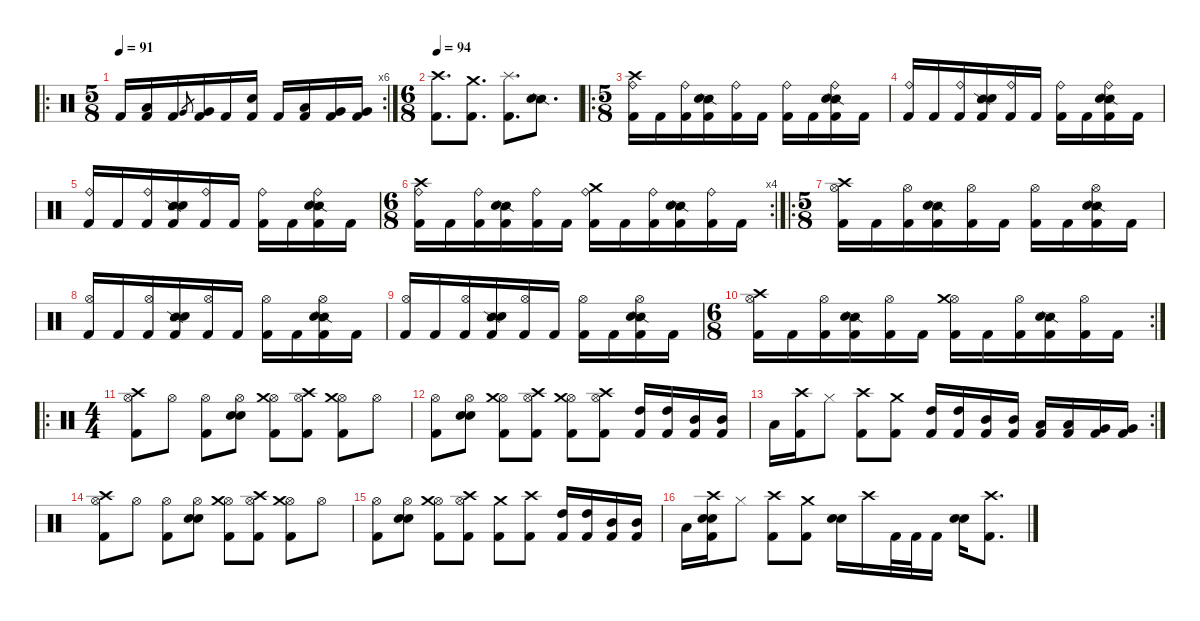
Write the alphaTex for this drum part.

\defaultSystemsLayout 4
\hideDynamics
\bracketExtendMode nobrackets
\singleTrackTrackNamePolicy hidden
\multiTrackTrackNamePolicy hidden
\firstSystemTrackNameMode fullname
\firstSystemTrackNameOrientation horizontal
\otherSystemsTrackNameOrientation horizontal
\track ("Drums" "drm.") {defaultSystemsLayout 4 instrument percussion}
\staff {score}
\articulation defaults
\ro
\rc 6
\ts (5 8)
\tempo 91
\clef neutral
\ks c "Kick (hit) 2".16{dy f beam Up}
("Low Tom (hit)" "Kick (hit) 2").16{dy ff beam Up} "Kick (hit) 2".16{dy f beam Up} "Very Low Tom (hit)".8{gr dy p beam Up} ("Very Low Tom (hit)" "Kick (hit) 2").16{dy f beam Up} "Kick (hit) 2".16{beam Up} ("Snare (hit) 2" "Kick (hit) 2").16{dy fff beam Up} "Kick (hit) 2".16{dy f beam Up} ("Low Tom (hit)" "Kick (hit) 2").16{dy ff beam Up} ("Very Low Tom (hit)" "Kick (hit) 2").16{dy f beam Up} ("Kick (hit) 2" "Very Low Tom (hit)").16{dy mf beam Up} |
\ts (6 8)
\beaming (8 3 3)
\tempo 94
("Crash high (hit)" "Kick (hit) 2").8{d dy fff beam Down} ("Crash medium (hit)" "Kick (hit) 2").8{d beam Down} ("Splash (hit)" "Kick (hit) 2").8{d beam Down} ("Snare (side stick) 2" "Snare (hit) 2").8{d dy ff beam Down} |
\ro
\ts (5 8)
\beaming (8 3 2)
("Ride (bell)" "Crash high (hit)" "Kick (hit) 2").16{dy f beam Down} "Kick (hit) 2".16{dy ff beam Down} ("Ride (bell)" "Kick (hit) 2").16{dy f beam Down} ("Snare (side stick) 2" "Snare (hit) 2" "Kick (hit) 2").16{dy ff beam Down} ("Ride (bell)" "Kick (hit) 2").16{dy f beam Down} "Kick (hit) 2".16{dy ff beam Down} ("Ride (bell)" "Kick (hit) 2").16{dy f beam Down} "Kick (hit) 2".16{dy ff beam Down} ("Ride (bell)" "Snare (side stick) 2" "Snare (hit) 2" "Kick (hit) 2").16{dy f beam Down} "Kick (hit) 2".16{dy ff beam Down} |
("Ride (bell)" "Kick (hit) 2").16{dy f beam Up} "Kick (hit) 2".16{beam Up} ("Ride (bell)" "Kick (hit) 2").16{beam Up} ("Snare (side stick) 2" "Snare (hit) 2" "Kick (hit) 2").16{beam Up} ("Ride (bell)" "Kick (hit) 2").16{beam Up} "Kick (hit) 2".16{beam Up} ("Ride (bell)" "Kick (hit) 2").16{beam Down} "Kick (hit) 2".16{beam Down} ("Ride (bell)" "Snare (side stick) 2" "Snare (hit) 2" "Kick (hit) 2").16{beam Down} "Kick (hit) 2".16{beam Down} |
("Ride (bell)" "Kick (hit) 2").16{beam Up} "Kick (hit) 2".16{dy ff beam Up} ("Ride (bell)" "Kick (hit) 2").16{dy f beam Up} ("Snare (side stick) 2" "Snare (hit) 2" "Kick (hit) 2").16{dy ff beam Up} ("Ride (bell)" "Kick (hit) 2").16{dy f beam Up} "Kick (hit) 2".16{dy ff beam Up} ("Ride (bell)" "Kick (hit) 2").16{dy f beam Down} "Kick (hit) 2".16{dy ff beam Down} ("Ride (bell)" "Snare (side stick) 2" "Snare (hit) 2" "Kick (hit) 2").16{dy f beam Down} "Kick (hit) 2".16{dy ff beam Down} |
\rc 4
\ts (6 8)
\beaming (8 3 3)
("Ride (bell)" "Crash high (hit)" "Kick (hit) 2").16{dy f beam Down} "Kick (hit) 2".16{beam Down} ("Ride (bell)" "Kick (hit) 2").16{beam Down} ("Snare (side stick) 2" "Snare (hit) 2" "Kick (hit) 2").16{beam Down} ("Ride (bell)" "Kick (hit) 2").16{beam Down} "Kick (hit) 2".16{beam Down} ("Ride (bell)" "Crash medium (hit)" "Kick (hit) 2").16{beam Down} "Kick (hit) 2".16{beam Down} ("Ride (bell)" "Kick (hit) 2").16{beam Down} ("Snare (side stick) 2" "Snare (hit) 2" "Kick (hit) 2").16{beam Down} ("Ride (bell)" "Kick (hit) 2").16{beam Down} "Kick (hit) 2".16{beam Down} |
\ro
\ts (5 8)
\beaming (8 3 2)
("Hi-Hat (open)" "Crash high (hit)" "Kick (hit) 2").16{dy ff beam Down} "Kick (hit) 2".16{dy f beam Down} ("Hi-Hat (open)" "Kick (hit) 2").16{dy ff beam Down} ("Snare (side stick) 2" "Snare (hit) 2" "Kick (hit) 2").16{dy f beam Down} ("Hi-Hat (open)" "Kick (hit) 2").16{dy ff beam Down} "Kick (hit) 2".16{dy f beam Down} ("Hi-Hat (open)" "Kick (hit) 2").16{dy ff beam Down} "Kick (hit) 2".16{dy f beam Down} ("Hi-Hat (open)" "Snare (side stick) 2" "Snare (hit) 2" "Kick (hit) 2").16{dy ff beam Down} "Kick (hit) 2".16{dy f beam Down} |
("Hi-Hat (open)" "Kick (hit) 2").16{dy ff beam Up} "Kick (hit) 2".16{dy f beam Up} ("Hi-Hat (open)" "Kick (hit) 2").16{dy ff beam Up} ("Snare (side stick) 2" "Snare (hit) 2" "Kick (hit) 2").16{dy f beam Up} ("Hi-Hat (open)" "Kick (hit) 2").16{dy ff beam Up} "Kick (hit) 2".16{dy f beam Up} ("Hi-Hat (open)" "Kick (hit) 2").16{dy ff beam Down} "Kick (hit) 2".16{dy f beam Down} ("Hi-Hat (open)" "Snare (side stick) 2" "Snare (hit) 2" "Kick (hit) 2").16{dy ff beam Down} "Kick (hit) 2".16{dy f beam Down} |
("Hi-Hat (open)" "Kick (hit) 2").16{dy ff beam Up} "Kick (hit) 2".16{dy f beam Up} ("Hi-Hat (open)" "Kick (hit) 2").16{dy ff beam Up} ("Snare (side stick) 2" "Snare (hit) 2" "Kick (hit) 2").16{dy f beam Up} ("Hi-Hat (open)" "Kick (hit) 2").16{dy ff beam Up} "Kick (hit) 2".16{dy f beam Up} ("Hi-Hat (open)" "Kick (hit) 2").16{dy ff beam Down} "Kick (hit) 2".16{dy f beam Down} ("Hi-Hat (open)" "Snare (side stick) 2" "Snare (hit) 2" "Kick (hit) 2").16{dy ff beam Down} "Kick (hit) 2".16{dy f beam Down} |
\rc 2
\ts (6 8)
\beaming (8 3 3)
("Hi-Hat (open)" "Crash high (hit)" "Kick (hit) 2").16{dy ff beam Down} "Kick (hit) 2".16{dy f beam Down} ("Hi-Hat (open)" "Kick (hit) 2").16{dy ff beam Down} ("Snare (side stick) 2" "Snare (hit) 2" "Kick (hit) 2").16{dy f beam Down} ("Hi-Hat (open)" "Kick (hit) 2").16{dy ff beam Down} "Kick (hit) 2".16{dy f beam Down} ("Hi-Hat (open)" "Crash medium (hit)" "Kick (hit) 2").16{dy ff beam Down} "Kick (hit) 2".16{dy f beam Down} ("Hi-Hat (open)" "Kick (hit) 2").16{dy ff beam Down} ("Snare (side stick) 2" "Snare (hit) 2" "Kick (hit) 2").16{dy f beam Down} ("Hi-Hat (open)" "Kick (hit) 2").16{dy ff beam Down} "Kick (hit) 2".16{dy f beam Down} |
\ro
\ts (4 4)
\beaming (8 2 2 2 2)
("Hi-Hat (open)" "Crash high (hit)" "Kick (hit) 2").8{beam Down} "Hi-Hat (open)".8{beam Down} ("Hi-Hat (open)" "Kick (hit) 2").8{beam Down} ("Hi-Hat (open)" "Snare (hit) 2" "Metronome (bell)").8{beam Down} ("Hi-Hat (open)" "Crash medium (hit)" "Kick (hit) 2").8{beam Down} ("Hi-Hat (open)" "Crash high (hit)" "Kick (hit) 2").8{beam Down} ("Hi-Hat (open)" "Crash medium (hit)" "Kick (hit) 2").8{beam Down} "Hi-Hat (open)".8{beam Down} |
("Hi-Hat (open)" "Kick (hit) 2").8{beam Down} ("Hi-Hat (open)" "Snare (hit) 2" "Metronome (bell)").8{beam Down} ("Hi-Hat (open)" "Crash medium (hit)" "Kick (hit) 2").8{beam Down} ("Hi-Hat (open)" "Crash high (hit)" "Kick (hit) 2").8{beam Down} ("Hi-Hat (open)" "Crash medium (hit)" "Kick (hit) 2").8{beam Down} ("Hi-Hat (open)" "Crash high (hit)" "Kick (hit) 2").8{beam Down} ("High Tom (hit)" "Kick (hit) 2").16{dy ff beam Up} ("High Tom (hit)" "Kick (hit) 2").16{beam Up} ("Mid Tom (hit)" "Kick (hit) 2").16{beam Up} ("Mid Tom (hit)" "Kick (hit) 2").16{beam Up} |
\rc 2 "Low Tom (hit)".16{beam Down}
("Crash high (hit)" "Kick (hit) 2").16{dy fff beam Down} "Hi-Hat (closed)".8{dy f beam Down} ("Crash high (hit)" "Kick (hit) 2").8{dy fff beam Down} ("Crash medium (hit)" "Kick (hit) 2").8{beam Down} ("High Tom (hit)" "Kick (hit) 2").16{dy ff beam Up} ("High Tom (hit)" "Kick (hit) 2").16{beam Up} ("Mid Tom (hit)" "Kick (hit) 2").16{beam Up} ("Mid Tom (hit)" "Kick (hit) 2").16{beam Up} ("Low Tom (hit)" "Kick (hit) 2").16{beam Up} ("Low Tom (hit)" "Kick (hit) 2").16{beam Up} ("Very Low Tom (hit)" "Kick (hit) 2").16{dy f beam Up} ("Very Low Tom (hit)" "Kick (hit) 2").16{beam Up} |
("Hi-Hat (open)" "Crash high (hit)" "Kick (hit) 2").8{beam Down} "Hi-Hat (open)".8{beam Down} ("Hi-Hat (open)" "Kick (hit) 2").8{beam Down} ("Hi-Hat (open)" "Snare (hit) 2" "Metronome (bell)").8{beam Down} ("Hi-Hat (open)" "Crash medium (hit)" "Kick (hit) 2").8{beam Down} ("Hi-Hat (open)" "Crash high (hit)" "Kick (hit) 2").8{beam Down} ("Hi-Hat (open)" "Crash medium (hit)" "Kick (hit) 2").8{beam Down} "Hi-Hat (open)".8{beam Down} |
("Hi-Hat (open)" "Kick (hit) 2").8{beam Down} ("Hi-Hat (open)" "Snare (hit) 2" "Metronome (bell)").8{beam Down} ("Hi-Hat (open)" "Crash medium (hit)" "Kick (hit) 2").8{beam Down} ("Hi-Hat (open)" "Crash high (hit)" "Kick (hit) 2").8{beam Down} ("Crash medium (hit)" "Kick (hit) 2").8{dy ff beam Down} ("Crash high (hit)" "Kick (hit) 2").8{beam Down} ("High Tom (hit)" "Kick (hit) 2").16{beam Up} ("High Tom (hit)" "Kick (hit) 2").16{beam Up} ("Mid Tom (hit)" "Kick (hit) 2").16{beam Up} ("Mid Tom (hit)" "Kick (hit) 2").16{beam Up} |
"Low Tom (hit)".16{beam Down} ("Crash high (hit)" "Snare (hit) 2" "Metronome (bell)" "Kick (hit) 2").16{dy fff beam Down} "Hi-Hat (closed)".8{dy f beam Down} ("Crash high (hit)" "Kick (hit) 2").8{dy fff beam Down} ("Crash medium (hit)" "Kick (hit) 2").8{beam Down} ("Snare (hit) 2" "Metronome (bell)").16{dy ff beam Down} "Crash high (hit)".16{beam Down} "Kick (hit) 2".32{beam Down} "Kick (hit) 2".32{beam Down} "Kick (hit) 2".16{beam Down} ("Snare (hit) 2" "Metronome (bell)").16{beam Down} ("Crash high (hit)" "Kick (hit) 2").8{d dy fff beam Down}
